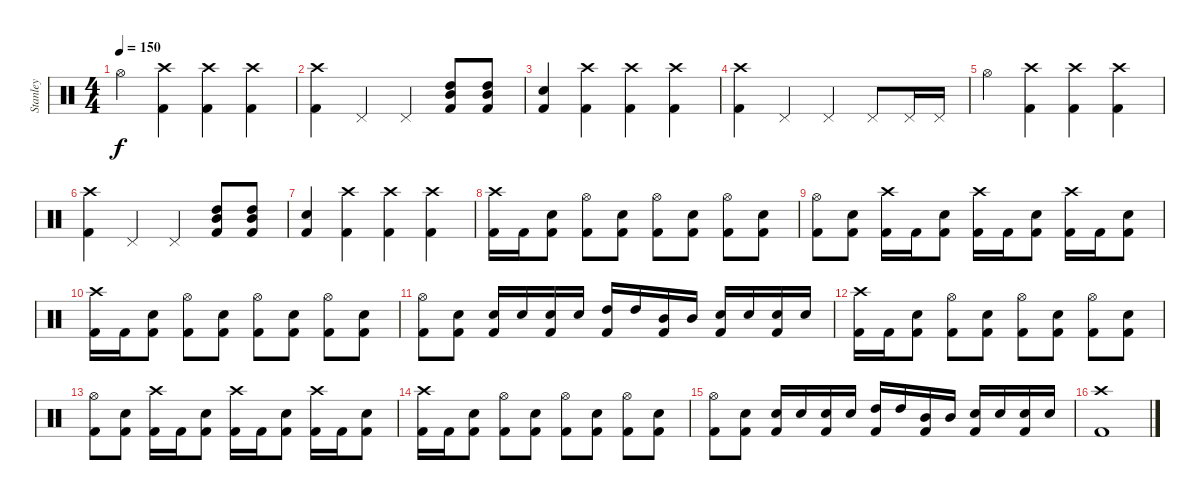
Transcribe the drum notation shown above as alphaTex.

\track ("Stanley" "Stanley") {instrument percussion}
\staff {score}
\articulation defaults
\ts (4 4)
\tempo 150
\clef neutral
\ks c "Hi-Hat (open)".4{dy f}
("Crash high (hit)" "Kick (hit) 2").4 ("Crash high (hit)" "Kick (hit) 2").4 ("Crash high (hit)" "Kick (hit) 2").4 |
("Crash high (hit)" "Kick (hit) 2").4 "Pedal Hi-Hat (hit)".4 "Pedal Hi-Hat (hit)".4 ("High Tom (hit)" "Mid Tom (hit)" "Kick (hit) 2").8 ("High Tom (hit)" "Mid Tom (hit)" "Kick (hit) 2").8 |
("Electric Snare (hit)" "Kick (hit) 2").4 ("Crash high (hit)" "Kick (hit) 2").4 ("Crash high (hit)" "Kick (hit) 2").4 ("Crash high (hit)" "Kick (hit) 2").4 |
("Crash high (hit)" "Kick (hit) 2").4 "Pedal Hi-Hat (hit)".4 "Pedal Hi-Hat (hit)".4 "Pedal Hi-Hat (hit)".8 "Pedal Hi-Hat (hit)".16 "Pedal Hi-Hat (hit)".16 |
"Hi-Hat (open)".4 ("Crash high (hit)" "Kick (hit) 2").4 ("Crash high (hit)" "Kick (hit) 2").4 ("Crash high (hit)" "Kick (hit) 2").4 |
("Crash high (hit)" "Kick (hit) 2").4 "Pedal Hi-Hat (hit)".4 "Pedal Hi-Hat (hit)".4 ("High Tom (hit)" "Mid Tom (hit)" "Kick (hit) 2").8 ("High Tom (hit)" "Mid Tom (hit)" "Kick (hit) 2").8 |
("Electric Snare (hit)" "Kick (hit) 2").4 ("Crash high (hit)" "Kick (hit) 2").4 ("Crash high (hit)" "Kick (hit) 2").4 ("Crash high (hit)" "Kick (hit) 2").4 |
("Crash high (hit)" "Kick (hit) 2").16 "Kick (hit) 2".16 ("Electric Snare (hit)" "Kick (hit) 2").8 ("Hi-Hat (open)" "Kick (hit) 2").8 ("Electric Snare (hit)" "Kick (hit) 2").8 ("Hi-Hat (open)" "Kick (hit) 2").8 ("Electric Snare (hit)" "Kick (hit) 2").8 ("Hi-Hat (open)" "Kick (hit) 2").8 ("Electric Snare (hit)" "Kick (hit) 2").8 |
("Hi-Hat (open)" "Kick (hit) 2").8 ("Electric Snare (hit)" "Kick (hit) 2").8 ("Crash high (hit)" "Kick (hit) 2").16 "Kick (hit) 2".16 ("Electric Snare (hit)" "Kick (hit) 2").8 ("Crash high (hit)" "Kick (hit) 2").16 "Kick (hit) 2".16 ("Electric Snare (hit)" "Kick (hit) 2").8 ("Crash high (hit)" "Kick (hit) 2").16 "Kick (hit) 2".16 ("Electric Snare (hit)" "Kick (hit) 2").8 |
("Crash high (hit)" "Kick (hit) 2").16 "Kick (hit) 2".16 ("Electric Snare (hit)" "Kick (hit) 2").8 ("Hi-Hat (open)" "Kick (hit) 2").8 ("Electric Snare (hit)" "Kick (hit) 2").8 ("Hi-Hat (open)" "Kick (hit) 2").8 ("Electric Snare (hit)" "Kick (hit) 2").8 ("Hi-Hat (open)" "Kick (hit) 2").8 ("Electric Snare (hit)" "Kick (hit) 2").8 |
("Hi-Hat (open)" "Kick (hit) 2").8 ("Electric Snare (hit)" "Kick (hit) 2").8 ("Electric Snare (hit)" "Kick (hit) 2").16 "Electric Snare (hit)".16 ("Electric Snare (hit)" "Kick (hit) 2").16 "Electric Snare (hit)".16 ("High Tom (hit)" "Kick (hit) 2").16 "High Tom (hit)".16 ("Mid Tom (hit)" "Kick (hit) 2").16 "Mid Tom (hit)".16 ("Electric Snare (hit)" "Kick (hit) 2").16 "Electric Snare (hit)".16 ("Electric Snare (hit)" "Kick (hit) 2").16 "Electric Snare (hit)".16 |
("Crash high (hit)" "Kick (hit) 2").16 "Kick (hit) 2".16 ("Electric Snare (hit)" "Kick (hit) 2").8 ("Hi-Hat (open)" "Kick (hit) 2").8 ("Electric Snare (hit)" "Kick (hit) 2").8 ("Hi-Hat (open)" "Kick (hit) 2").8 ("Electric Snare (hit)" "Kick (hit) 2").8 ("Hi-Hat (open)" "Kick (hit) 2").8 ("Electric Snare (hit)" "Kick (hit) 2").8 |
("Hi-Hat (open)" "Kick (hit) 2").8 ("Electric Snare (hit)" "Kick (hit) 2").8 ("Crash high (hit)" "Kick (hit) 2").16 "Kick (hit) 2".16 ("Electric Snare (hit)" "Kick (hit) 2").8 ("Crash high (hit)" "Kick (hit) 2").16 "Kick (hit) 2".16 ("Electric Snare (hit)" "Kick (hit) 2").8 ("Crash high (hit)" "Kick (hit) 2").16 "Kick (hit) 2".16 ("Electric Snare (hit)" "Kick (hit) 2").8 |
("Crash high (hit)" "Kick (hit) 2").16 "Kick (hit) 2".16 ("Electric Snare (hit)" "Kick (hit) 2").8 ("Hi-Hat (open)" "Kick (hit) 2").8 ("Electric Snare (hit)" "Kick (hit) 2").8 ("Hi-Hat (open)" "Kick (hit) 2").8 ("Electric Snare (hit)" "Kick (hit) 2").8 ("Hi-Hat (open)" "Kick (hit) 2").8 ("Electric Snare (hit)" "Kick (hit) 2").8 |
("Hi-Hat (open)" "Kick (hit) 2").8 ("Electric Snare (hit)" "Kick (hit) 2").8 ("Electric Snare (hit)" "Kick (hit) 2").16 "Electric Snare (hit)".16 ("Electric Snare (hit)" "Kick (hit) 2").16 "Electric Snare (hit)".16 ("High Tom (hit)" "Kick (hit) 2").16 "High Tom (hit)".16 ("Mid Tom (hit)" "Kick (hit) 2").16 "Mid Tom (hit)".16 ("Electric Snare (hit)" "Kick (hit) 2").16 "Electric Snare (hit)".16 ("Electric Snare (hit)" "Kick (hit) 2").16 "Electric Snare (hit)".16 |
("Crash high (hit)" "Kick (hit) 2").1
